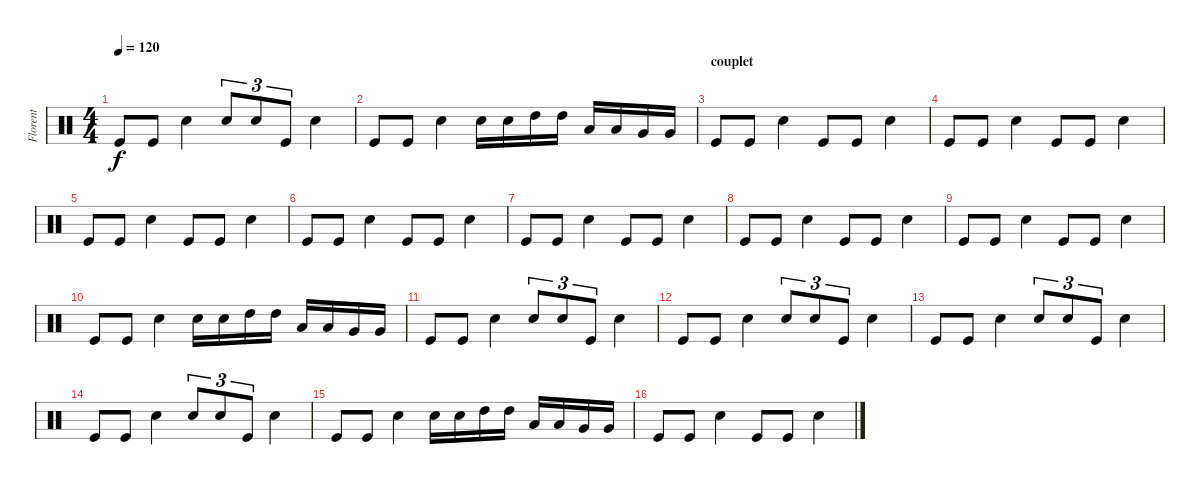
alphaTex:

\track ("Florent" "Florent") {instrument percussion}
\staff {score}
\articulation defaults
\ts (4 4)
\tempo 120
\clef neutral
\ks c "Kick (hit)".8{dy f} "Kick (hit)".8 "Snare (hit) 2".4 "Snare (hit) 2".8{tu (3 2)} "Snare (hit) 2".8{tu (3 2)} "Kick (hit)".8{tu (3 2)} "Snare (hit) 2".4
|
"Kick (hit)".8 "Kick (hit)".8 "Snare (hit) 2".4 "Snare (hit) 2".16 "Snare (hit) 2".16 "High Tom (hit)".16 "High Tom (hit)".16 "Low Tom (hit)".16 "Low Tom (hit)".16 "Very Low Tom (hit)".16 "Very Low Tom (hit)".16 |
\section ("" "couplet")
"Kick (hit)".8 "Kick (hit)".8 "Snare (hit) 2".4 "Kick (hit)".8 "Kick (hit)".8 "Snare (hit) 2".4 |
"Kick (hit)".8 "Kick (hit)".8 "Snare (hit) 2".4 "Kick (hit)".8 "Kick (hit)".8 "Snare (hit) 2".4 |
"Kick (hit)".8 "Kick (hit)".8 "Snare (hit) 2".4 "Kick (hit)".8 "Kick (hit)".8 "Snare (hit) 2".4 |
"Kick (hit)".8 "Kick (hit)".8 "Snare (hit) 2".4 "Kick (hit)".8 "Kick (hit)".8 "Snare (hit) 2".4 |
"Kick (hit)".8 "Kick (hit)".8 "Snare (hit) 2".4 "Kick (hit)".8 "Kick (hit)".8 "Snare (hit) 2".4 |
"Kick (hit)".8 "Kick (hit)".8 "Snare (hit) 2".4 "Kick (hit)".8 "Kick (hit)".8 "Snare (hit) 2".4 |
"Kick (hit)".8 "Kick (hit)".8 "Snare (hit) 2".4 "Kick (hit)".8 "Kick (hit)".8 "Snare (hit) 2".4 |
"Kick (hit)".8 "Kick (hit)".8 "Snare (hit) 2".4 "Snare (hit) 2".16 "Snare (hit) 2".16 "High Tom (hit)".16 "High Tom (hit)".16 "Low Tom (hit)".16 "Low Tom (hit)".16 "Very Low Tom (hit)".16 "Very Low Tom (hit)".16 |
\section ("" "")
"Kick (hit)".8 "Kick (hit)".8 "Snare (hit) 2".4 "Snare (hit) 2".8{tu (3 2)} "Snare (hit) 2".8{tu (3 2)} "Kick (hit)".8{tu (3 2)} "Snare (hit) 2".4 |
"Kick (hit)".8 "Kick (hit)".8 "Snare (hit) 2".4 "Snare (hit) 2".8{tu (3 2)} "Snare (hit) 2".8{tu (3 2)} "Kick (hit)".8{tu (3 2)} "Snare (hit) 2".4 |
"Kick (hit)".8 "Kick (hit)".8 "Snare (hit) 2".4 "Snare (hit) 2".8{tu (3 2)} "Snare (hit) 2".8{tu (3 2)} "Kick (hit)".8{tu (3 2)} "Snare (hit) 2".4 |
"Kick (hit)".8 "Kick (hit)".8 "Snare (hit) 2".4 "Snare (hit) 2".8{tu (3 2)} "Snare (hit) 2".8{tu (3 2)} "Kick (hit)".8{tu (3 2)} "Snare (hit) 2".4 |
"Kick (hit)".8 "Kick (hit)".8 "Snare (hit) 2".4 "Snare (hit) 2".16 "Snare (hit) 2".16 "High Tom (hit)".16 "High Tom (hit)".16 "Low Tom (hit)".16 "Low Tom (hit)".16 "Very Low Tom (hit)".16 "Very Low Tom (hit)".16 |
"Kick (hit)".8 "Kick (hit)".8 "Snare (hit) 2".4 "Kick (hit)".8 "Kick (hit)".8 "Snare (hit) 2".4
